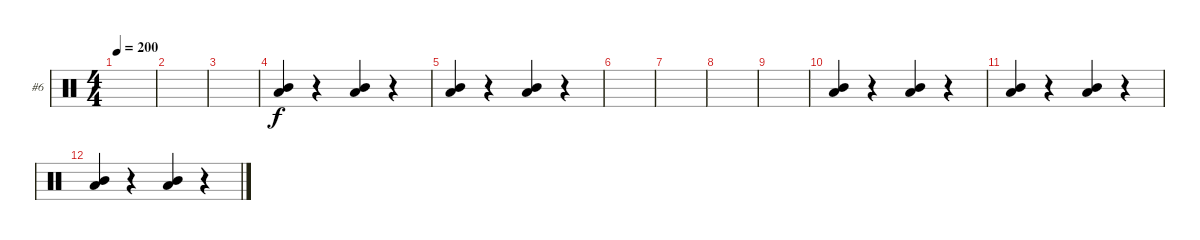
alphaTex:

\bracketExtendMode groupsimilarinstruments
\firstSystemTrackNameOrientation horizontal
\otherSystemsTrackNameOrientation horizontal
\track ("Shawn \"Clown\" Crahan" "#6") {instrument percussion}
\staff {score}
\articulation defaults
\ts (4 4)
\tempo 200
\clef neutral
\ks c
|
|
|
("Low Tom (hit)" "Mid Tom (hit)").4 r.4 ("Low Tom (hit)" "Mid Tom (hit)").4 r.4 |
("Low Tom (hit)" "Mid Tom (hit)").4 r.4 ("Low Tom (hit)" "Mid Tom (hit)").4 r.4 |
|
|
|
|
("Low Tom (hit)" "Mid Tom (hit)").4 r.4 ("Low Tom (hit)" "Mid Tom (hit)").4 r.4 |
("Low Tom (hit)" "Mid Tom (hit)").4 r.4 ("Low Tom (hit)" "Mid Tom (hit)").4 r.4 |
("Low Tom (hit)" "Mid Tom (hit)").4 r.4 ("Low Tom (hit)" "Mid Tom (hit)").4 r.4
